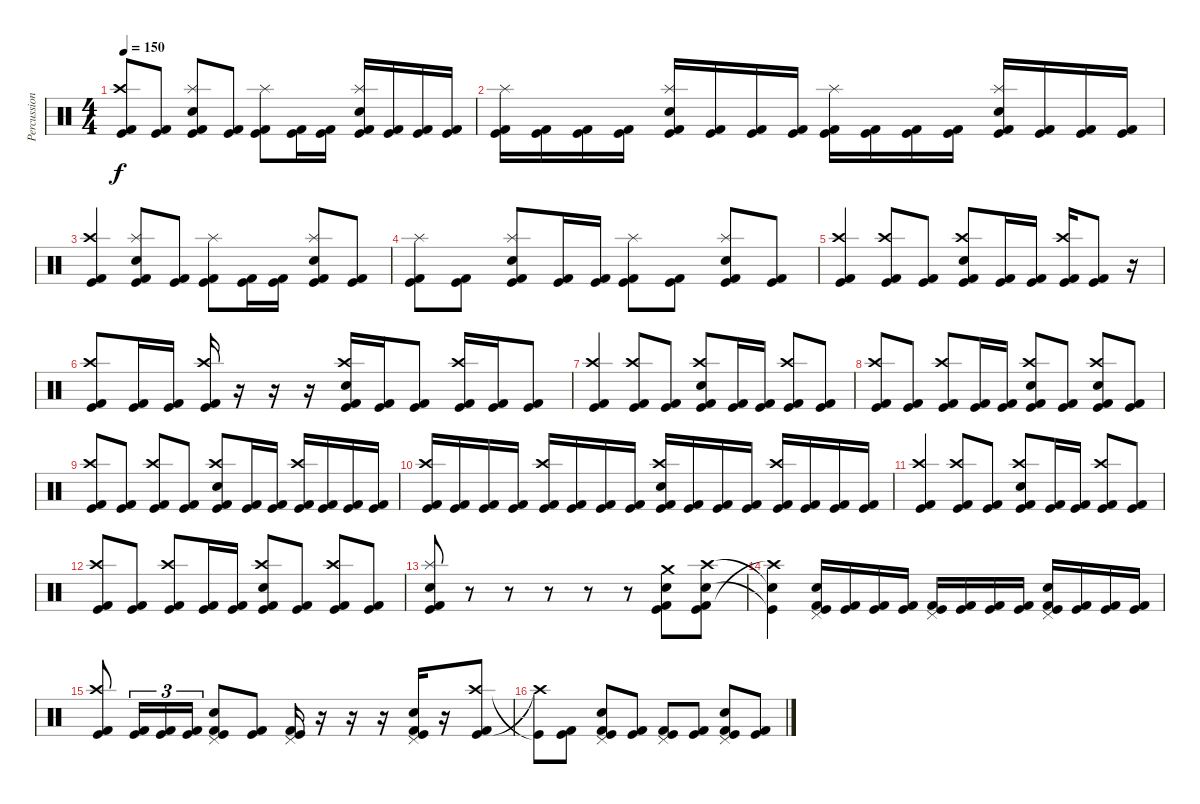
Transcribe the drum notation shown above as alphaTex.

\track ("Percussion" "Percussion") {instrument percussion}
\staff {score}
\articulation defaults
\ts (4 4)
\tempo 150
\clef neutral
\ks c
("Kick (hit) 2" "Crash high (hit)" "Kick (hit)").8{dy f} ("Kick (hit) 2" "Kick (hit)").8 ("Kick (hit) 2" "Splash (hit)" "Snare (hit) 2" "Kick (hit)").8 ("Kick (hit) 2" "Kick (hit)").8 ("Kick (hit) 2" "Splash (hit)" "Kick (hit)").8 ("Kick (hit) 2" "Kick (hit)").16 ("Kick (hit) 2" "Kick (hit)").16 ("Kick (hit) 2" "Splash (hit)" "Snare (hit) 2" "Kick (hit)").16 ("Kick (hit) 2" "Kick (hit)").16 ("Kick (hit) 2" "Kick (hit)").16 ("Kick (hit) 2" "Kick (hit)").16 |
("Kick (hit) 2" "Splash (hit)" "Kick (hit)").16 ("Kick (hit) 2" "Kick (hit)").16 ("Kick (hit) 2" "Kick (hit)").16 ("Kick (hit) 2" "Kick (hit)").16 ("Kick (hit) 2" "Splash (hit)" "Snare (hit) 2" "Kick (hit)").16 ("Kick (hit) 2" "Kick (hit)").16 ("Kick (hit) 2" "Kick (hit)").16 ("Kick (hit) 2" "Kick (hit)").16 ("Kick (hit) 2" "Splash (hit)" "Kick (hit)").16 ("Kick (hit) 2" "Kick (hit)").16 ("Kick (hit) 2" "Kick (hit)").16 ("Kick (hit) 2" "Kick (hit)").16 ("Kick (hit) 2" "Splash (hit)" "Snare (hit) 2" "Kick (hit)").16 ("Kick (hit) 2" "Kick (hit)").16 ("Kick (hit) 2" "Kick (hit)").16 ("Kick (hit) 2" "Kick (hit)").16 |
("Kick (hit) 2" "Crash high (hit)" "Kick (hit)").4 ("Kick (hit) 2" "Splash (hit)" "Snare (hit) 2" "Kick (hit)").8 ("Kick (hit) 2" "Kick (hit)").8 ("Kick (hit) 2" "Splash (hit)" "Kick (hit)").8 ("Kick (hit) 2" "Kick (hit)").16 ("Kick (hit) 2" "Kick (hit)").16 ("Kick (hit) 2" "Splash (hit)" "Snare (hit) 2" "Kick (hit)").8 ("Kick (hit) 2" "Kick (hit)").8 |
("Kick (hit) 2" "Splash (hit)" "Kick (hit)").8 ("Kick (hit) 2" "Kick (hit)").8 ("Kick (hit) 2" "Splash (hit)" "Snare (hit) 2" "Kick (hit)").8 ("Kick (hit) 2" "Kick (hit)").16 ("Kick (hit) 2" "Kick (hit)").16 ("Kick (hit) 2" "Splash (hit)" "Kick (hit)").8 ("Kick (hit) 2" "Kick (hit)").8 ("Kick (hit) 2" "Splash (hit)" "Snare (hit) 2" "Kick (hit)").8 ("Kick (hit) 2" "Kick (hit)").8 |
("Kick (hit) 2" "Crash high (hit)" "Kick (hit)").4 ("Kick (hit) 2" "Crash high (hit)" "Kick (hit)").8 ("Kick (hit) 2" "Kick (hit)").8 ("Kick (hit) 2" "Crash high (hit)" "Snare (hit) 2" "Kick (hit)").8 ("Kick (hit) 2" "Kick (hit)").16 ("Kick (hit) 2" "Kick (hit)").16 ("Kick (hit) 2" "Crash high (hit)" "Kick (hit)").16 ("Kick (hit) 2" "Kick (hit)").8 r.16 |
("Kick (hit) 2" "Crash high (hit)" "Kick (hit)").8 ("Kick (hit) 2" "Kick (hit)").16 ("Kick (hit) 2" "Kick (hit)").16 ("Kick (hit) 2" "Crash high (hit)" "Kick (hit)").16 r.16 r.16 r.16 ("Kick (hit) 2" "Crash high (hit)" "Snare (hit) 2" "Kick (hit)").16 ("Kick (hit) 2" "Kick (hit)").16 ("Kick (hit) 2" "Kick (hit)").8 ("Kick (hit) 2" "Crash high (hit)" "Kick (hit)").16 ("Kick (hit) 2" "Kick (hit)").16 ("Kick (hit) 2" "Kick (hit)").8 |
("Kick (hit) 2" "Crash high (hit)" "Kick (hit)").4 ("Kick (hit) 2" "Crash high (hit)" "Kick (hit)").8 ("Kick (hit) 2" "Kick (hit)").8 ("Kick (hit) 2" "Crash high (hit)" "Snare (hit) 2" "Kick (hit)").8 ("Kick (hit) 2" "Kick (hit)").16 ("Kick (hit) 2" "Kick (hit)").16 ("Kick (hit) 2" "Crash high (hit)" "Kick (hit)").8 ("Kick (hit) 2" "Kick (hit)").8 |
("Kick (hit) 2" "Crash high (hit)" "Kick (hit)").8 ("Kick (hit) 2" "Kick (hit)").8 ("Kick (hit) 2" "Crash high (hit)" "Kick (hit)").8 ("Kick (hit) 2" "Kick (hit)").16 ("Kick (hit) 2" "Kick (hit)").16 ("Kick (hit) 2" "Crash high (hit)" "Snare (hit) 2" "Kick (hit)").8 ("Kick (hit) 2" "Kick (hit)").8 ("Kick (hit) 2" "Crash high (hit)" "Snare (hit) 2" "Kick (hit)").8 ("Kick (hit) 2" "Kick (hit)").8 |
("Kick (hit) 2" "Crash high (hit)" "Kick (hit)").8 ("Kick (hit) 2" "Kick (hit)").8 ("Kick (hit) 2" "Crash high (hit)" "Kick (hit)").8 ("Kick (hit) 2" "Kick (hit)").8 ("Kick (hit) 2" "Crash high (hit)" "Snare (hit) 2" "Kick (hit)").8 ("Kick (hit) 2" "Kick (hit)").16 ("Kick (hit) 2" "Kick (hit)").16 ("Kick (hit) 2" "Crash high (hit)" "Kick (hit)").16 ("Kick (hit) 2" "Kick (hit)").16 ("Kick (hit) 2" "Kick (hit)").16 ("Kick (hit) 2" "Kick (hit)").16 |
("Kick (hit) 2" "Crash high (hit)" "Kick (hit)").16 ("Kick (hit) 2" "Kick (hit)").16 ("Kick (hit) 2" "Kick (hit)").16 ("Kick (hit) 2" "Kick (hit)").16 ("Kick (hit) 2" "Crash high (hit)" "Kick (hit)").16 ("Kick (hit) 2" "Kick (hit)").16 ("Kick (hit) 2" "Kick (hit)").16 ("Kick (hit) 2" "Kick (hit)").16 ("Kick (hit) 2" "Crash high (hit)" "Snare (hit) 2" "Kick (hit)").16 ("Kick (hit) 2" "Kick (hit)").16 ("Kick (hit) 2" "Kick (hit)").16 ("Kick (hit) 2" "Kick (hit)").16 ("Kick (hit) 2" "Crash high (hit)" "Kick (hit)").16 ("Kick (hit) 2" "Kick (hit)").16 ("Kick (hit) 2" "Kick (hit)").16 ("Kick (hit) 2" "Kick (hit)").16 |
("Kick (hit) 2" "Crash high (hit)" "Kick (hit)").4 ("Kick (hit) 2" "Crash high (hit)" "Kick (hit)").8 ("Kick (hit) 2" "Kick (hit)").8 ("Kick (hit) 2" "Crash high (hit)" "Snare (hit) 2" "Kick (hit)").8 ("Kick (hit) 2" "Kick (hit)").16 ("Kick (hit) 2" "Kick (hit)").16 ("Kick (hit) 2" "Crash high (hit)" "Kick (hit)").8 ("Kick (hit) 2" "Kick (hit)").8 |
("Kick (hit) 2" "Crash high (hit)" "Kick (hit)").8 ("Kick (hit) 2" "Kick (hit)").8 ("Kick (hit) 2" "Crash high (hit)" "Kick (hit)").8 ("Kick (hit) 2" "Kick (hit)").16 ("Kick (hit) 2" "Kick (hit)").16 ("Kick (hit) 2" "Crash high (hit)" "Snare (hit) 2" "Kick (hit)").8 ("Kick (hit) 2" "Kick (hit)").8 ("Kick (hit) 2" "Crash high (hit)" "Kick (hit)").8 ("Kick (hit) 2" "Kick (hit)").8 |
("Kick (hit) 2" "Splash (hit)" "Snare (hit) 2" "Kick (hit)").8 r.8 r.8 r.8 r.8 r.8 ("Kick (hit) 2" "Crash medium (hit)" "Snare (hit) 2" "Kick (hit)").8 ("Kick (hit) 2" "Crash high (hit)" "Snare (hit) 2" "Kick (hit)").8 |
("Crash high (hit)"{t} "Snare (hit)"{t} "Kick (hit)"{t}).4 ("Kick (hit) 2" "Pedal Hi-Hat (hit)" "Snare (hit) 2" "Kick (hit)").16 ("Kick (hit) 2" "Kick (hit)").16 ("Kick (hit) 2" "Kick (hit)").16 ("Kick (hit) 2" "Kick (hit)").16 ("Kick (hit) 2" "Pedal Hi-Hat (hit)" "Kick (hit)").16 ("Kick (hit) 2" "Kick (hit)").16 ("Kick (hit) 2" "Kick (hit)").16 ("Kick (hit) 2" "Kick (hit)").16 ("Kick (hit) 2" "Pedal Hi-Hat (hit)" "Snare (hit) 2" "Kick (hit)").16 ("Kick (hit) 2" "Kick (hit)").16 ("Kick (hit) 2" "Kick (hit)").16 ("Kick (hit) 2" "Kick (hit)").16 |
("Kick (hit) 2" "Crash high (hit)" "Kick (hit)").8 ("Kick (hit) 2" "Kick (hit)").16{tu (3 2)} ("Kick (hit) 2" "Kick (hit)").16{tu (3 2)} ("Kick (hit) 2" "Kick (hit)").16{tu (3 2)} ("Kick (hit) 2" "Pedal Hi-Hat (hit)" "Snare (hit) 2" "Kick (hit)").8 ("Kick (hit) 2" "Kick (hit)").8 ("Kick (hit) 2" "Pedal Hi-Hat (hit)" "Kick (hit)").16 r.16 r.16 r.16 ("Kick (hit) 2" "Pedal Hi-Hat (hit)" "Snare (hit) 2" "Kick (hit)").16 r.16 ("Kick (hit) 2" "Crash high (hit)" "Kick (hit)").8 |
("Crash high (hit)"{t} "Kick (hit)"{t}).8 ("Kick (hit) 2" "Kick (hit)").8 ("Kick (hit) 2" "Pedal Hi-Hat (hit)" "Snare (hit) 2" "Kick (hit)").8 ("Kick (hit) 2" "Kick (hit)").8 ("Kick (hit) 2" "Pedal Hi-Hat (hit)" "Kick (hit)").8 ("Kick (hit) 2" "Kick (hit)").8 ("Kick (hit) 2" "Pedal Hi-Hat (hit)" "Snare (hit) 2" "Kick (hit)").8 ("Kick (hit) 2" "Kick (hit)").8
